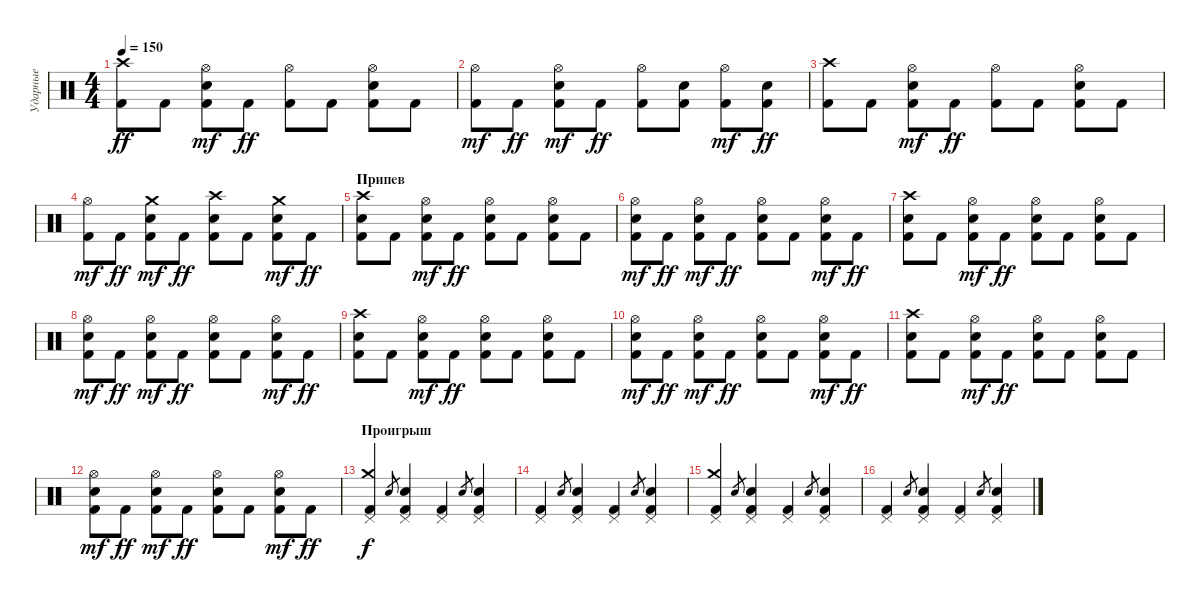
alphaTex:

\track ("Ударные" "Ударные") {instrument percussion}
\staff {score}
\articulation defaults
\ts (4 4)
\tempo 150
\clef neutral
\ks c
("Crash high (hit)" "Kick (hit) 2").8{dy ff} "Kick (hit) 2".8 ("Kick (hit) 2" "Electric Snare (hit)" "Hi-Hat (open)").8{dy mf} "Kick (hit) 2".8{dy ff} ("Hi-Hat (open)" "Kick (hit) 2").8 "Kick (hit) 2".8 ("Kick (hit) 2" "Hi-Hat (open)" "Electric Snare (hit)").8 "Kick (hit) 2".8 |
("Kick (hit) 2" "Hi-Hat (open)").8{dy mf} "Kick (hit) 2".8{dy ff} ("Electric Snare (hit)" "Kick (hit) 2" "Hi-Hat (open)").8{dy mf} "Kick (hit) 2".8{dy ff} ("Hi-Hat (open)" "Kick (hit) 2").8 ("Kick (hit) 2" "Electric Snare (hit)").8 ("Kick (hit) 2" "Hi-Hat (open)").8{dy mf} ("Kick (hit) 2" "Electric Snare (hit)").8{dy ff} |
("Crash high (hit)" "Kick (hit) 2").8 "Kick (hit) 2".8 ("Kick (hit) 2" "Electric Snare (hit)" "Hi-Hat (open)").8{dy mf} "Kick (hit) 2".8{dy ff} ("Hi-Hat (open)" "Kick (hit) 2").8 "Kick (hit) 2".8 ("Kick (hit) 2" "Hi-Hat (open)" "Electric Snare (hit)").8 "Kick (hit) 2".8 |
("Kick (hit) 2" "Hi-Hat (open)").8{dy mf} "Kick (hit) 2".8{dy ff} ("Electric Snare (hit)" "Kick (hit) 2" "Crash medium (hit)").8{dy mf} "Kick (hit) 2".8{dy ff} ("Crash high (hit)" "Kick (hit) 2" "Electric Snare (hit)").8 "Kick (hit) 2".8 ("Electric Snare (hit)" "Kick (hit) 2" "Crash medium (hit)").8{dy mf} "Kick (hit) 2".8{dy ff} |
\section ("" "Припев")
("Crash high (hit)" "Kick (hit) 2" "Electric Snare (hit)").8 "Kick (hit) 2".8 ("Kick (hit) 2" "Electric Snare (hit)" "Hi-Hat (open)").8{dy mf} "Kick (hit) 2".8{dy ff} ("Hi-Hat (open)" "Kick (hit) 2" "Electric Snare (hit)").8 "Kick (hit) 2".8 ("Kick (hit) 2" "Hi-Hat (open)" "Electric Snare (hit)").8 "Kick (hit) 2".8 |
("Kick (hit) 2" "Hi-Hat (open)" "Electric Snare (hit)").8{dy mf} "Kick (hit) 2".8{dy ff} ("Electric Snare (hit)" "Kick (hit) 2" "Hi-Hat (open)").8{dy mf} "Kick (hit) 2".8{dy ff} ("Hi-Hat (open)" "Kick (hit) 2" "Electric Snare (hit)").8 "Kick (hit) 2".8 ("Electric Snare (hit)" "Kick (hit) 2" "Hi-Hat (open)").8{dy mf} "Kick (hit) 2".8{dy ff} |
("Crash high (hit)" "Kick (hit) 2" "Electric Snare (hit)").8 "Kick (hit) 2".8 ("Kick (hit) 2" "Electric Snare (hit)" "Hi-Hat (open)").8{dy mf} "Kick (hit) 2".8{dy ff} ("Hi-Hat (open)" "Kick (hit) 2" "Electric Snare (hit)").8 "Kick (hit) 2".8 ("Kick (hit) 2" "Hi-Hat (open)" "Electric Snare (hit)").8 "Kick (hit) 2".8 |
("Kick (hit) 2" "Hi-Hat (open)" "Electric Snare (hit)").8{dy mf} "Kick (hit) 2".8{dy ff} ("Electric Snare (hit)" "Kick (hit) 2" "Hi-Hat (open)").8{dy mf} "Kick (hit) 2".8{dy ff} ("Hi-Hat (open)" "Kick (hit) 2" "Electric Snare (hit)").8 "Kick (hit) 2".8 ("Electric Snare (hit)" "Kick (hit) 2" "Hi-Hat (open)").8{dy mf} "Kick (hit) 2".8{dy ff} |
("Crash high (hit)" "Kick (hit) 2" "Electric Snare (hit)").8 "Kick (hit) 2".8 ("Kick (hit) 2" "Electric Snare (hit)" "Hi-Hat (open)").8{dy mf} "Kick (hit) 2".8{dy ff} ("Hi-Hat (open)" "Kick (hit) 2" "Electric Snare (hit)").8 "Kick (hit) 2".8 ("Kick (hit) 2" "Hi-Hat (open)" "Electric Snare (hit)").8 "Kick (hit) 2".8 |
("Kick (hit) 2" "Hi-Hat (open)" "Electric Snare (hit)").8{dy mf} "Kick (hit) 2".8{dy ff} ("Electric Snare (hit)" "Kick (hit) 2" "Hi-Hat (open)").8{dy mf} "Kick (hit) 2".8{dy ff} ("Hi-Hat (open)" "Kick (hit) 2" "Electric Snare (hit)").8 "Kick (hit) 2".8 ("Electric Snare (hit)" "Kick (hit) 2" "Hi-Hat (open)").8{dy mf} "Kick (hit) 2".8{dy ff} |
("Crash high (hit)" "Kick (hit) 2" "Electric Snare (hit)").8 "Kick (hit) 2".8 ("Kick (hit) 2" "Electric Snare (hit)" "Hi-Hat (open)").8{dy mf} "Kick (hit) 2".8{dy ff} ("Hi-Hat (open)" "Kick (hit) 2" "Electric Snare (hit)").8 "Kick (hit) 2".8 ("Kick (hit) 2" "Hi-Hat (open)" "Electric Snare (hit)").8 "Kick (hit) 2".8 |
("Kick (hit) 2" "Hi-Hat (open)" "Electric Snare (hit)").8{dy mf} "Kick (hit) 2".8{dy ff} ("Electric Snare (hit)" "Kick (hit) 2" "Hi-Hat (open)").8{dy mf} "Kick (hit) 2".8{dy ff} ("Hi-Hat (open)" "Kick (hit) 2" "Electric Snare (hit)").8 "Kick (hit) 2".8 ("Electric Snare (hit)" "Kick (hit) 2" "Hi-Hat (open)").8{dy mf} "Kick (hit) 2".8{dy ff} |
\section ("" "Проигрыш")
("Pedal Hi-Hat (hit)" "Kick (hit) 2" "Crash medium (hit)").4{dy f} "Electric Snare (hit)".8{gr} ("Electric Snare (hit)" "Kick (hit) 2" "Pedal Hi-Hat (hit)").4 ("Pedal Hi-Hat (hit)" "Kick (hit) 2").4 "Electric Snare (hit)".8{gr} ("Electric Snare (hit)" "Kick (hit) 2" "Pedal Hi-Hat (hit)").4 |
("Pedal Hi-Hat (hit)" "Kick (hit) 2").4 "Electric Snare (hit)".8{gr} ("Electric Snare (hit)" "Kick (hit) 2" "Pedal Hi-Hat (hit)").4 ("Pedal Hi-Hat (hit)" "Kick (hit) 2").4 "Electric Snare (hit)".8{gr} ("Electric Snare (hit)" "Kick (hit) 2" "Pedal Hi-Hat (hit)").4 |
("Pedal Hi-Hat (hit)" "Kick (hit) 2" "Crash medium (hit)").4 "Electric Snare (hit)".8{gr} ("Electric Snare (hit)" "Kick (hit) 2" "Pedal Hi-Hat (hit)").4 ("Pedal Hi-Hat (hit)" "Kick (hit) 2").4 "Electric Snare (hit)".8{gr} ("Electric Snare (hit)" "Kick (hit) 2" "Pedal Hi-Hat (hit)").4 |
("Pedal Hi-Hat (hit)" "Kick (hit) 2").4 "Electric Snare (hit)".8{gr} ("Electric Snare (hit)" "Kick (hit) 2" "Pedal Hi-Hat (hit)").4 ("Pedal Hi-Hat (hit)" "Kick (hit) 2").4 "Electric Snare (hit)".8{gr} ("Electric Snare (hit)" "Kick (hit) 2" "Pedal Hi-Hat (hit)").4
